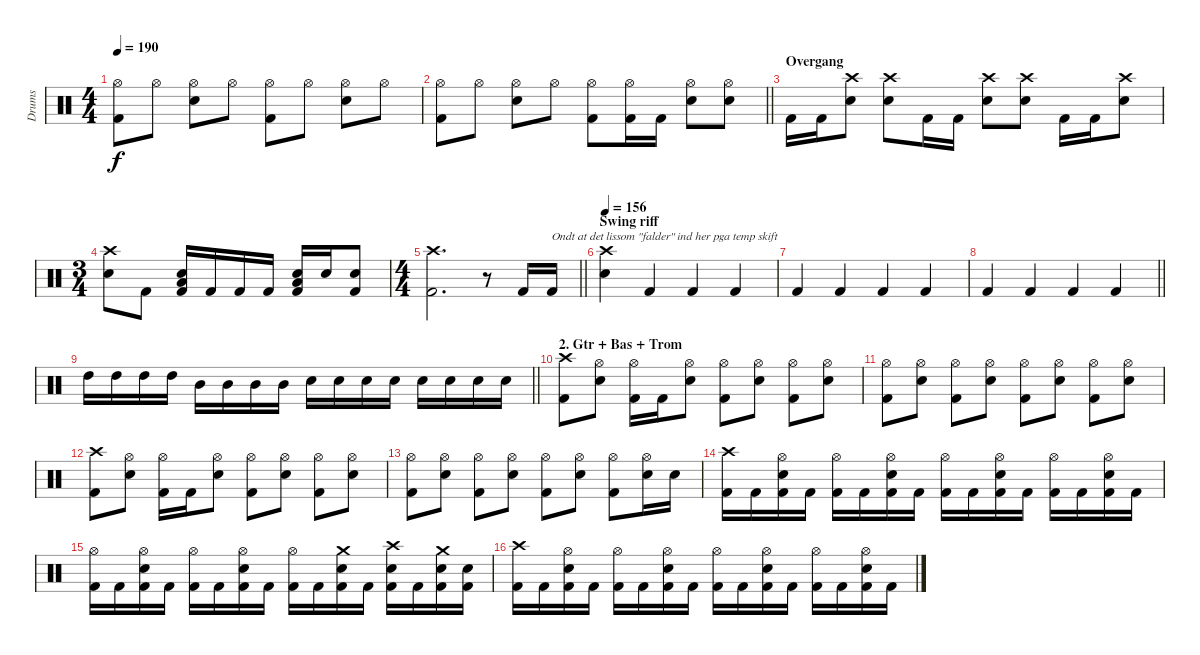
\track ("Drums" "Drums") {instrument percussion}
\staff {score}
\articulation defaults
\ts (4 4)
\tempo 190
\clef neutral
\ks c
("Hi-Hat (open)" "Kick (hit) 2").8{dy f} "Hi-Hat (open)".8 ("Hi-Hat (open)" "Snare (hit) 2").8 "Hi-Hat (open)".8 ("Hi-Hat (open)" "Kick (hit) 2").8 "Hi-Hat (open)".8 ("Hi-Hat (open)" "Snare (hit) 2").8 "Hi-Hat (open)".8 |
\barLineRight lightlight
("Hi-Hat (open)" "Kick (hit) 2").8 "Hi-Hat (open)".8 ("Hi-Hat (open)" "Snare (hit) 2").8 "Hi-Hat (open)".8 ("Hi-Hat (open)" "Kick (hit) 2").8 ("Hi-Hat (open)" "Kick (hit) 2").16 "Kick (hit) 2".16 ("Hi-Hat (open)" "Snare (hit) 2").8 ("Hi-Hat (open)" "Snare (hit) 2").8 |
\section ("" "Overgang")
"Kick (hit) 2".16 "Kick (hit) 2".16 ("Crash high (hit)" "Snare (hit) 2").8 ("Crash high (hit)" "Snare (hit) 2").8 "Kick (hit) 2".16 "Kick (hit) 2".16 ("Crash high (hit)" "Snare (hit) 2").8 ("Crash high (hit)" "Snare (hit) 2").8 "Kick (hit) 2".16 "Kick (hit) 2".16 ("Crash high (hit)" "Snare (hit) 2").8 |
\ts (3 4)
("Crash high (hit)" "Snare (hit) 2").8 "Kick (hit) 2".8 ("Low Floor Tom (hit)" "Snare (hit) 2" "Kick (hit) 2").16 "Kick (hit) 2".16 "Kick (hit) 2".16 "Kick (hit) 2".16 ("Low Floor Tom (hit)" "Snare (hit) 2" "Kick (hit) 2").16 "Snare (hit) 2".16 ("Snare (hit) 2" "Kick (hit) 2").8 |
\ts (4 4)
\barLineRight lightlight
("Crash high (hit)" "Kick (hit) 2").2{d} r.8 "Kick (hit) 2".16 "Kick (hit) 2".16{txt "Ondt at det lissom \"falder\" ind her pga temp skift"} |
\section ("" "Swing riff")
\tempo 156
("Crash high (hit)" "Snare (hit) 2").4 "Kick (hit) 2".4 "Kick (hit) 2".4 "Kick (hit) 2".4 |
"Kick (hit) 2".4 "Kick (hit) 2".4 "Kick (hit) 2".4 "Kick (hit) 2".4 |
\barLineRight lightlight "Kick (hit) 2".4 "Kick (hit) 2".4 "Kick (hit) 2".4 "Kick (hit) 2".4
|
\barLineRight lightlight "High Tom (hit)".16 "High Tom (hit)".16 "High Tom (hit)".16 "High Tom (hit)".16 "Mid Tom (hit)".16 "Mid Tom (hit)".16 "Mid Tom (hit)".16 "Mid Tom (hit)".16 "Snare (hit) 2".16 "Snare (hit) 2".16 "Snare (hit) 2".16 "Snare (hit) 2".16 "Snare (hit) 2".16 "Snare (hit) 2".16 "Snare (hit) 2".16 "Snare (hit) 2".16
|
\section ("" "2. Gtr + Bas + Trom")
("Crash high (hit)" "Kick (hit) 2").8 ("Hi-Hat (open)" "Snare (hit) 2").8 ("Hi-Hat (open)" "Kick (hit) 2").16 "Kick (hit) 2".16 ("Hi-Hat (open)" "Snare (hit) 2").8 ("Hi-Hat (open)" "Kick (hit) 2").8 ("Hi-Hat (open)" "Snare (hit) 2").8 ("Hi-Hat (open)" "Kick (hit) 2").8 ("Hi-Hat (open)" "Snare (hit) 2").8 |
("Hi-Hat (open)" "Kick (hit) 2").8 ("Hi-Hat (open)" "Snare (hit) 2").8 ("Hi-Hat (open)" "Kick (hit) 2").8 ("Hi-Hat (open)" "Snare (hit) 2").8 ("Hi-Hat (open)" "Kick (hit) 2").8 ("Hi-Hat (open)" "Snare (hit) 2").8 ("Hi-Hat (open)" "Kick (hit) 2").8 ("Hi-Hat (open)" "Snare (hit) 2").8 |
("Crash high (hit)" "Kick (hit) 2").8 ("Hi-Hat (open)" "Snare (hit) 2").8 ("Hi-Hat (open)" "Kick (hit) 2").16 "Kick (hit) 2".16 ("Hi-Hat (open)" "Snare (hit) 2").8 ("Hi-Hat (open)" "Kick (hit) 2").8 ("Hi-Hat (open)" "Snare (hit) 2").8 ("Hi-Hat (open)" "Kick (hit) 2").8 ("Hi-Hat (open)" "Snare (hit) 2").8 |
("Hi-Hat (open)" "Kick (hit) 2").8 ("Hi-Hat (open)" "Snare (hit) 2").8 ("Hi-Hat (open)" "Kick (hit) 2").8 ("Hi-Hat (open)" "Snare (hit) 2").8 ("Hi-Hat (open)" "Kick (hit) 2").8 ("Hi-Hat (open)" "Snare (hit) 2").8 ("Hi-Hat (open)" "Kick (hit) 2").8 ("Hi-Hat (open)" "Snare (hit) 2").16 "Snare (hit) 2".16 |
("Crash high (hit)" "Kick (hit) 2").16 "Kick (hit) 2".16 ("Hi-Hat (open)" "Snare (hit) 2" "Kick (hit) 2").16 "Kick (hit) 2".16 ("Hi-Hat (open)" "Kick (hit) 2").16 "Kick (hit) 2".16 ("Hi-Hat (open)" "Snare (hit) 2" "Kick (hit) 2").16 "Kick (hit) 2".16 ("Hi-Hat (open)" "Kick (hit) 2").16 "Kick (hit) 2".16 ("Hi-Hat (open)" "Snare (hit) 2" "Kick (hit) 2").16 "Kick (hit) 2".16 ("Hi-Hat (open)" "Kick (hit) 2").16 "Kick (hit) 2".16 ("Hi-Hat (open)" "Snare (hit) 2" "Kick (hit) 2").16 "Kick (hit) 2".16 |
("Hi-Hat (open)" "Kick (hit) 2").16 "Kick (hit) 2".16 ("Hi-Hat (open)" "Snare (hit) 2" "Kick (hit) 2").16 "Kick (hit) 2".16 ("Hi-Hat (open)" "Kick (hit) 2").16 "Kick (hit) 2".16 ("Hi-Hat (open)" "Snare (hit) 2" "Kick (hit) 2").16 "Kick (hit) 2".16 ("Hi-Hat (open)" "Kick (hit) 2").16 "Kick (hit) 2".16 ("Crash medium (hit)" "Snare (hit) 2" "Kick (hit) 2").16 "Kick (hit) 2".16 ("Crash high (hit)" "Snare (hit) 2" "Kick (hit) 2").16 "Kick (hit) 2".16 ("Crash medium (hit)" "Snare (hit) 2" "Kick (hit) 2").16 ("Snare (hit) 2" "Kick (hit) 2").16 |
("Crash high (hit)" "Kick (hit) 2").16 "Kick (hit) 2".16 ("Hi-Hat (open)" "Snare (hit) 2" "Kick (hit) 2").16 "Kick (hit) 2".16 ("Hi-Hat (open)" "Kick (hit) 2").16 "Kick (hit) 2".16 ("Hi-Hat (open)" "Snare (hit) 2" "Kick (hit) 2").16 "Kick (hit) 2".16 ("Hi-Hat (open)" "Kick (hit) 2").16 "Kick (hit) 2".16 ("Hi-Hat (open)" "Snare (hit) 2" "Kick (hit) 2").16 "Kick (hit) 2".16 ("Hi-Hat (open)" "Kick (hit) 2").16 "Kick (hit) 2".16 ("Hi-Hat (open)" "Snare (hit) 2" "Kick (hit) 2").16 "Kick (hit) 2".16
